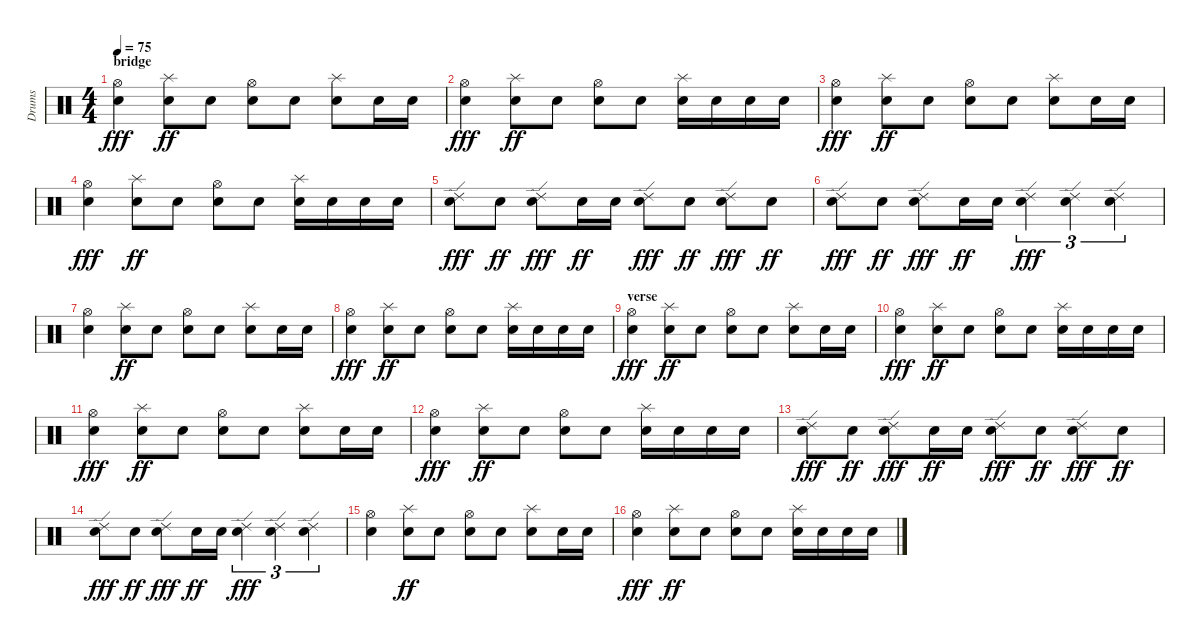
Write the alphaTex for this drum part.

\track ("Drums" "Drums") {instrument percussion}
\staff {score}
\articulation defaults
\ts (4 4)
\section ("" "bridge")
\tempo 75
\clef neutral
\ks c
("Electric Snare (hit)" "Hi-Hat (open)").4{dy fff} ("Splash (hit)" "Snare (hit) 2").8{dy ff} "Snare (hit) 2".8 ("Hi-Hat (open)" "Snare (hit) 2").8 "Electric Snare (hit)".8 ("Splash (hit)" "Snare (hit) 2").8 "Snare (hit) 2".16 "Snare (hit) 2".16 |
("Electric Snare (hit)" "Hi-Hat (open)").4{dy fff} ("Splash (hit)" "Snare (hit) 2").8{dy ff} "Snare (hit) 2".8 ("Hi-Hat (open)" "Snare (hit) 2").8 "Electric Snare (hit)".8 ("Splash (hit)" "Snare (hit) 2").16 "Snare (hit) 2".16 "Snare (hit) 2".16 "Snare (hit) 2".16 |
("Electric Snare (hit)" "Hi-Hat (open)").4{dy fff} ("Splash (hit)" "Snare (hit) 2").8{dy ff} "Snare (hit) 2".8 ("Hi-Hat (open)" "Snare (hit) 2").8 "Electric Snare (hit)".8 ("Splash (hit)" "Snare (hit) 2").8 "Snare (hit) 2".16 "Snare (hit) 2".16 |
("Electric Snare (hit)" "Hi-Hat (open)").4{dy fff} ("Splash (hit)" "Snare (hit) 2").8{dy ff} "Snare (hit) 2".8 ("Hi-Hat (open)" "Snare (hit) 2").8 "Electric Snare (hit)".8 ("Splash (hit)" "Snare (hit) 2").16 "Snare (hit) 2".16 "Snare (hit) 2".16 "Snare (hit) 2".16 |
("Electric Snare (hit)" "Ride (edge) 2").8{dy fff} "Electric Snare (hit)".8{dy ff} ("Electric Snare (hit)" "Ride (edge) 2").8{dy fff} "Electric Snare (hit)".16{dy ff} "Electric Snare (hit)".16 ("Electric Snare (hit)" "Ride (edge) 2").8{dy fff} "Electric Snare (hit)".8{dy ff} ("Electric Snare (hit)" "Ride (edge) 2").8{dy fff} "Electric Snare (hit)".8{dy ff} |
("Electric Snare (hit)" "Ride (edge) 2").8{dy fff} "Electric Snare (hit)".8{dy ff} ("Electric Snare (hit)" "Ride (edge) 2").8{dy fff} "Electric Snare (hit)".16{dy ff} "Electric Snare (hit)".16 ("Electric Snare (hit)" "Ride (edge) 2").4{tu (3 2) dy fff} ("Electric Snare (hit)" "Ride (edge) 2").4{tu (3 2)} ("Electric Snare (hit)" "Ride (edge) 2").4{tu (3 2)} |
("Electric Snare (hit)" "Hi-Hat (open)").4 ("Splash (hit)" "Snare (hit) 2").8{dy ff} "Snare (hit) 2".8 ("Hi-Hat (open)" "Snare (hit) 2").8 "Electric Snare (hit)".8 ("Splash (hit)" "Snare (hit) 2").8 "Snare (hit) 2".16 "Snare (hit) 2".16 |
("Electric Snare (hit)" "Hi-Hat (open)").4{dy fff} ("Splash (hit)" "Snare (hit) 2").8{dy ff} "Snare (hit) 2".8 ("Hi-Hat (open)" "Snare (hit) 2").8 "Electric Snare (hit)".8 ("Splash (hit)" "Snare (hit) 2").16 "Snare (hit) 2".16 "Snare (hit) 2".16 "Snare (hit) 2".16 |
\section ("" "verse")
("Electric Snare (hit)" "Hi-Hat (open)").4{dy fff} ("Splash (hit)" "Snare (hit) 2").8{dy ff} "Snare (hit) 2".8 ("Hi-Hat (open)" "Snare (hit) 2").8 "Electric Snare (hit)".8 ("Splash (hit)" "Snare (hit) 2").8 "Snare (hit) 2".16 "Snare (hit) 2".16 |
("Electric Snare (hit)" "Hi-Hat (open)").4{dy fff} ("Splash (hit)" "Snare (hit) 2").8{dy ff} "Snare (hit) 2".8 ("Hi-Hat (open)" "Snare (hit) 2").8 "Electric Snare (hit)".8 ("Splash (hit)" "Snare (hit) 2").16 "Snare (hit) 2".16 "Snare (hit) 2".16 "Snare (hit) 2".16 |
("Electric Snare (hit)" "Hi-Hat (open)").4{dy fff} ("Splash (hit)" "Snare (hit) 2").8{dy ff} "Snare (hit) 2".8 ("Hi-Hat (open)" "Snare (hit) 2").8 "Electric Snare (hit)".8 ("Splash (hit)" "Snare (hit) 2").8 "Snare (hit) 2".16 "Snare (hit) 2".16 |
("Electric Snare (hit)" "Hi-Hat (open)").4{dy fff} ("Splash (hit)" "Snare (hit) 2").8{dy ff} "Snare (hit) 2".8 ("Hi-Hat (open)" "Snare (hit) 2").8 "Electric Snare (hit)".8 ("Splash (hit)" "Snare (hit) 2").16 "Snare (hit) 2".16 "Snare (hit) 2".16 "Snare (hit) 2".16 |
("Electric Snare (hit)" "Ride (edge) 2").8{dy fff} "Electric Snare (hit)".8{dy ff} ("Electric Snare (hit)" "Ride (edge) 2").8{dy fff} "Electric Snare (hit)".16{dy ff} "Electric Snare (hit)".16 ("Electric Snare (hit)" "Ride (edge) 2").8{dy fff} "Electric Snare (hit)".8{dy ff} ("Electric Snare (hit)" "Ride (edge) 2").8{dy fff} "Electric Snare (hit)".8{dy ff} |
("Electric Snare (hit)" "Ride (edge) 2").8{dy fff} "Electric Snare (hit)".8{dy ff} ("Electric Snare (hit)" "Ride (edge) 2").8{dy fff} "Electric Snare (hit)".16{dy ff} "Electric Snare (hit)".16 ("Electric Snare (hit)" "Ride (edge) 2").4{tu (3 2) dy fff} ("Electric Snare (hit)" "Ride (edge) 2").4{tu (3 2)} ("Electric Snare (hit)" "Ride (edge) 2").4{tu (3 2)} |
("Electric Snare (hit)" "Hi-Hat (open)").4 ("Splash (hit)" "Snare (hit) 2").8{dy ff} "Snare (hit) 2".8 ("Hi-Hat (open)" "Snare (hit) 2").8 "Electric Snare (hit)".8 ("Splash (hit)" "Snare (hit) 2").8 "Snare (hit) 2".16 "Snare (hit) 2".16 |
("Electric Snare (hit)" "Hi-Hat (open)").4{dy fff} ("Splash (hit)" "Snare (hit) 2").8{dy ff} "Snare (hit) 2".8 ("Hi-Hat (open)" "Snare (hit) 2").8 "Electric Snare (hit)".8 ("Splash (hit)" "Snare (hit) 2").16 "Snare (hit) 2".16 "Snare (hit) 2".16 "Snare (hit) 2".16
